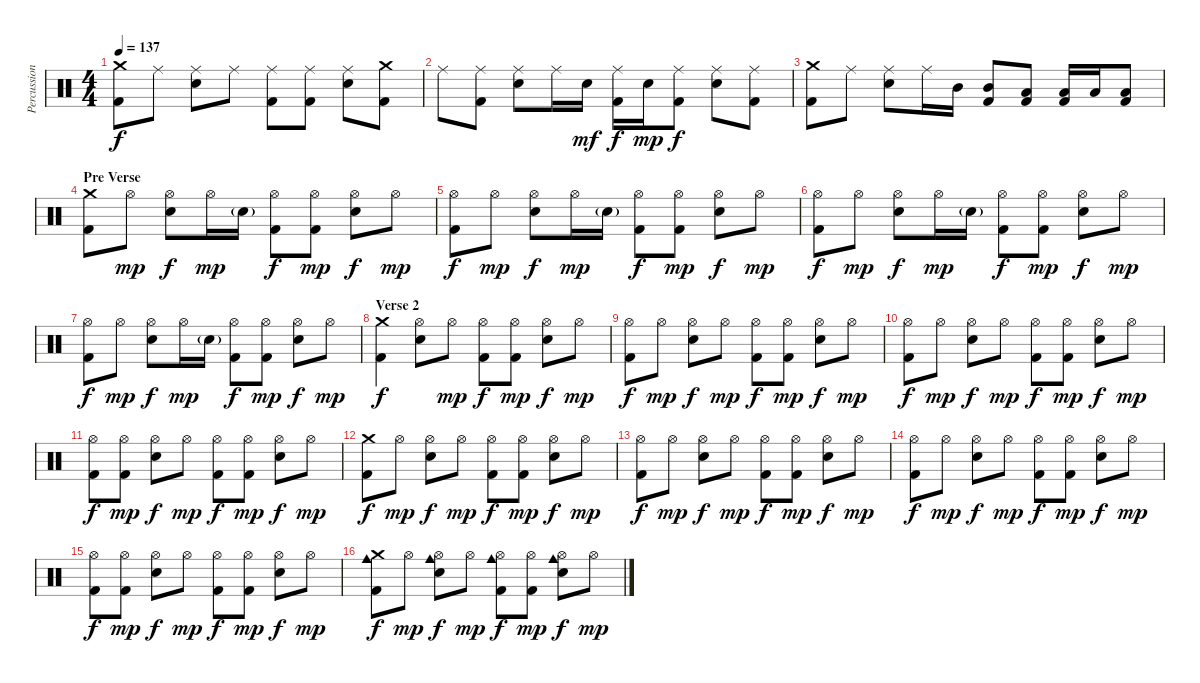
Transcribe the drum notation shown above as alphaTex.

\track ("Percussion" "Percussion") {instrument percussion}
\staff {score}
\articulation defaults
\ts (4 4)
\tempo 137
\clef neutral
\ks c
("Crash medium (hit)" "Kick (hit) 2").8{dy f} "Ride (middle)".8 ("Ride (middle)" "Electric Snare (hit)").8 "Ride (middle)".8 ("Ride (middle)" "Kick (hit) 2").8 ("Ride (middle)" "Kick (hit) 2").8 ("Ride (middle)" "Electric Snare (hit)").8 ("Crash medium (hit)" "Kick (hit) 2").8 |
"Ride (middle)".8 ("Ride (middle)" "Kick (hit) 2").8 ("Ride (middle)" "Electric Snare (hit)").8 "Ride (middle)".16 "Electric Snare (hit)".16{dy mf} ("Ride (middle)" "Kick (hit) 2").16{dy f} "Electric Snare (hit)".16{dy mp} ("Ride (middle)" "Kick (hit) 2").8{dy f} ("Ride (middle)" "Electric Snare (hit)").8 ("Ride (middle)" "Kick (hit) 2").8 |
("Crash medium (hit)" "Kick (hit) 2").8 "Ride (middle)".8 ("Ride (middle)" "Electric Snare (hit)").8 "Ride (middle)".16 "Mid Tom (hit)".16 ("Mid Tom (hit)" "Kick (hit) 2").8 ("Low Tom (hit)" "Kick (hit) 2").8 ("Low Floor Tom (hit)" "Kick (hit) 2").16 "Low Floor Tom (hit)".16 ("Low Floor Tom (hit)" "Kick (hit) 2").8 |
\section ("" "Pre Verse")
("Crash medium (hit)" "Kick (hit) 2").8 "Hi-Hat (open)".8{dy mp} ("Hi-Hat (open)" "Electric Snare (hit)").8{dy f} "Hi-Hat (open)".16{dy mp} "Electric Snare (hit)"{g}.16 ("Hi-Hat (open)" "Kick (hit) 2").8{dy f} ("Hi-Hat (open)" "Kick (hit) 2").8{dy mp} ("Hi-Hat (open)" "Electric Snare (hit)").8{dy f} "Hi-Hat (open)".8{dy mp} |
("Hi-Hat (open)" "Kick (hit) 2").8{dy f} "Hi-Hat (open)".8{dy mp} ("Hi-Hat (open)" "Electric Snare (hit)").8{dy f} "Hi-Hat (open)".16{dy mp} "Electric Snare (hit)"{g}.16 ("Hi-Hat (open)" "Kick (hit) 2").8{dy f} ("Hi-Hat (open)" "Kick (hit) 2").8{dy mp} ("Hi-Hat (open)" "Electric Snare (hit)").8{dy f} "Hi-Hat (open)".8{dy mp} |
("Hi-Hat (open)" "Kick (hit) 2").8{dy f} "Hi-Hat (open)".8{dy mp} ("Hi-Hat (open)" "Electric Snare (hit)").8{dy f} "Hi-Hat (open)".16{dy mp} "Electric Snare (hit)"{g}.16 ("Hi-Hat (open)" "Kick (hit) 2").8{dy f} ("Hi-Hat (open)" "Kick (hit) 2").8{dy mp} ("Hi-Hat (open)" "Electric Snare (hit)").8{dy f} "Hi-Hat (open)".8{dy mp} |
("Hi-Hat (open)" "Kick (hit) 2").8{dy f} "Hi-Hat (open)".8{dy mp} ("Hi-Hat (open)" "Electric Snare (hit)").8{dy f} "Hi-Hat (open)".16{dy mp} "Electric Snare (hit)"{g}.16 ("Hi-Hat (open)" "Kick (hit) 2").8{dy f} ("Hi-Hat (open)" "Kick (hit) 2").8{dy mp} ("Hi-Hat (open)" "Electric Snare (hit)").8{dy f} "Hi-Hat (open)".8{dy mp} |
\section ("" "Verse 2")
("Crash medium (hit)" "Kick (hit) 2").4{dy f} ("Hi-Hat (open)" "Electric Snare (hit)").8 "Hi-Hat (open)".8{dy mp} ("Hi-Hat (open)" "Kick (hit) 2").8{dy f} ("Hi-Hat (open)" "Kick (hit) 2").8{dy mp} ("Hi-Hat (open)" "Electric Snare (hit)").8{dy f} "Hi-Hat (open)".8{dy mp} |
("Hi-Hat (open)" "Kick (hit) 2").8{dy f} "Hi-Hat (open)".8{dy mp} ("Hi-Hat (open)" "Electric Snare (hit)").8{dy f} "Hi-Hat (open)".8{dy mp} ("Hi-Hat (open)" "Kick (hit) 2").8{dy f} ("Hi-Hat (open)" "Kick (hit) 2").8{dy mp} ("Hi-Hat (open)" "Electric Snare (hit)").8{dy f} "Hi-Hat (open)".8{dy mp} |
("Hi-Hat (open)" "Kick (hit) 2").8{dy f} "Hi-Hat (open)".8{dy mp} ("Hi-Hat (open)" "Electric Snare (hit)").8{dy f} "Hi-Hat (open)".8{dy mp} ("Hi-Hat (open)" "Kick (hit) 2").8{dy f} ("Hi-Hat (open)" "Kick (hit) 2").8{dy mp} ("Hi-Hat (open)" "Electric Snare (hit)").8{dy f} "Hi-Hat (open)".8{dy mp} |
("Hi-Hat (open)" "Kick (hit) 2").8{dy f} ("Hi-Hat (open)" "Kick (hit) 2").8{dy mp} ("Hi-Hat (open)" "Electric Snare (hit)").8{dy f} "Hi-Hat (open)".8{dy mp} ("Hi-Hat (open)" "Kick (hit) 2").8{dy f} ("Hi-Hat (open)" "Kick (hit) 2").8{dy mp} ("Hi-Hat (open)" "Electric Snare (hit)").8{dy f} "Hi-Hat (open)".8{dy mp} |
("Crash medium (hit)" "Kick (hit) 2").8{dy f} "Hi-Hat (open)".8{dy mp} ("Hi-Hat (open)" "Electric Snare (hit)").8{dy f} "Hi-Hat (open)".8{dy mp} ("Hi-Hat (open)" "Kick (hit) 2").8{dy f} ("Hi-Hat (open)" "Kick (hit) 2").8{dy mp} ("Hi-Hat (open)" "Electric Snare (hit)").8{dy f} "Hi-Hat (open)".8{dy mp} |
("Hi-Hat (open)" "Kick (hit) 2").8{dy f} "Hi-Hat (open)".8{dy mp} ("Hi-Hat (open)" "Electric Snare (hit)").8{dy f} "Hi-Hat (open)".8{dy mp} ("Hi-Hat (open)" "Kick (hit) 2").8{dy f} ("Hi-Hat (open)" "Kick (hit) 2").8{dy mp} ("Hi-Hat (open)" "Electric Snare (hit)").8{dy f} "Hi-Hat (open)".8{dy mp} |
("Hi-Hat (open)" "Kick (hit) 2").8{dy f} "Hi-Hat (open)".8{dy mp} ("Hi-Hat (open)" "Electric Snare (hit)").8{dy f} "Hi-Hat (open)".8{dy mp} ("Hi-Hat (open)" "Kick (hit) 2").8{dy f} ("Hi-Hat (open)" "Kick (hit) 2").8{dy mp} ("Hi-Hat (open)" "Electric Snare (hit)").8{dy f} "Hi-Hat (open)".8{dy mp} |
("Hi-Hat (open)" "Kick (hit) 2").8{dy f} ("Hi-Hat (open)" "Kick (hit) 2").8{dy mp} ("Hi-Hat (open)" "Electric Snare (hit)").8{dy f} "Hi-Hat (open)".8{dy mp} ("Hi-Hat (open)" "Kick (hit) 2").8{dy f} ("Hi-Hat (open)" "Kick (hit) 2").8{dy mp} ("Hi-Hat (open)" "Electric Snare (hit)").8{dy f} "Hi-Hat (open)".8{dy mp} |
("Crash medium (hit)" "Cowbell medium (hit)" "Kick (hit) 2").8{dy f} "Hi-Hat (open)".8{dy mp} ("Hi-Hat (open)" "Cowbell medium (hit)" "Electric Snare (hit)").8{dy f} "Hi-Hat (open)".8{dy mp} ("Hi-Hat (open)" "Cowbell medium (hit)" "Kick (hit) 2").8{dy f} ("Hi-Hat (open)" "Kick (hit) 2").8{dy mp} ("Hi-Hat (open)" "Cowbell medium (hit)" "Electric Snare (hit)").8{dy f} "Hi-Hat (open)".8{dy mp}
